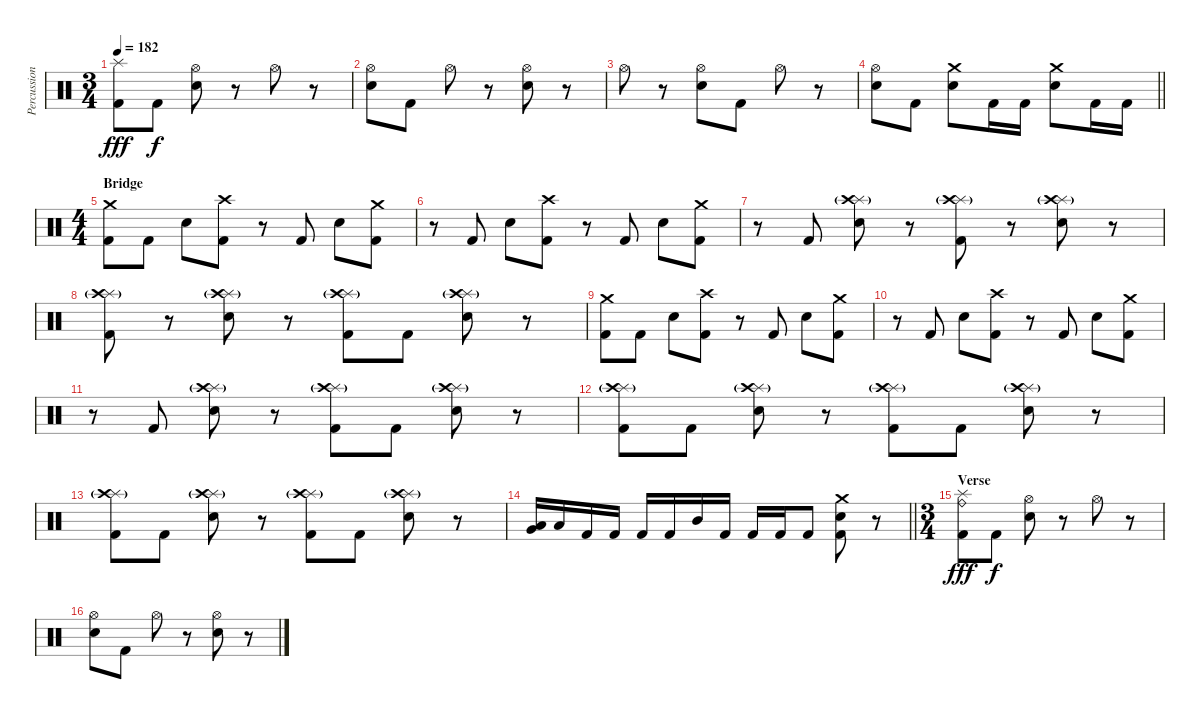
\track ("Percussion" "Percussion") {instrument percussion}
\staff {score}
\articulation defaults
\ts (3 4)
\tempo 182
\clef neutral
\ks c
("Splash (hit)" "Kick (hit) 2").8{dy fff} "Kick (hit) 2".8{dy f} ("Hi-Hat (open)" "Electric Snare (hit)").8 r.8 "Hi-Hat (open)".8 r.8 |
("Hi-Hat (open)" "Electric Snare (hit)").8 "Kick (hit) 2".8 "Hi-Hat (open)".8 r.8 ("Hi-Hat (open)" "Electric Snare (hit)").8 r.8 |
"Hi-Hat (open)".8 r.8 ("Hi-Hat (open)" "Electric Snare (hit)").8 "Kick (hit) 2".8 "Hi-Hat (open)".8 r.8 |
\barLineRight lightlight
("Hi-Hat (open)" "Electric Snare (hit)").8 "Kick (hit) 2".8 ("Crash medium (hit)" "Electric Snare (hit)").8 "Kick (hit) 2".16 "Kick (hit) 2".16 ("Crash medium (hit)" "Electric Snare (hit)").8 "Kick (hit) 2".16 "Kick (hit) 2".16 |
\ts (4 4)
\section ("" "Bridge")
("Crash medium (hit)" "Kick (hit) 2").8 "Kick (hit) 2".8 "Electric Snare (hit)".8 ("Crash high (hit)" "Kick (hit) 2").8 r.8 "Kick (hit) 2".8 "Electric Snare (hit)".8 ("Crash medium (hit)" "Kick (hit) 2").8 |
r.8 "Kick (hit) 2".8 "Electric Snare (hit)".8 ("Crash high (hit)" "Kick (hit) 2").8 r.8 "Kick (hit) 2".8 "Electric Snare (hit)".8 ("Crash medium (hit)" "Kick (hit) 2").8 |
r.8 "Kick (hit) 2".8 ("Splash (hit)"{g} "Crash high (hit)" "Electric Snare (hit)").8 r.8 ("Splash (hit)"{g} "Crash high (hit)" "Kick (hit) 2").8 r.8 ("Splash (hit)"{g} "Crash high (hit)" "Electric Snare (hit)").8 r.8 |
("Splash (hit)"{g} "Crash high (hit)" "Kick (hit) 2").8 r.8 ("Splash (hit)"{g} "Crash high (hit)" "Electric Snare (hit)").8 r.8 ("Splash (hit)"{g} "Crash high (hit)" "Kick (hit) 2").8 "Kick (hit) 2".8 ("Splash (hit)"{g} "Crash high (hit)" "Electric Snare (hit)").8 r.8 |
("Crash medium (hit)" "Kick (hit) 2").8 "Kick (hit) 2".8 "Electric Snare (hit)".8 ("Crash high (hit)" "Kick (hit) 2").8 r.8 "Kick (hit) 2".8 "Electric Snare (hit)".8 ("Crash medium (hit)" "Kick (hit) 2").8 |
r.8 "Kick (hit) 2".8 "Electric Snare (hit)".8 ("Crash high (hit)" "Kick (hit) 2").8 r.8 "Kick (hit) 2".8 "Electric Snare (hit)".8 ("Crash medium (hit)" "Kick (hit) 2").8 |
r.8 "Kick (hit) 2".8 ("Splash (hit)"{g} "Crash high (hit)" "Electric Snare (hit)").8 r.8 ("Splash (hit)"{g} "Crash high (hit)" "Kick (hit) 2").8 "Kick (hit) 2".8 ("Splash (hit)"{g} "Crash high (hit)" "Electric Snare (hit)").8 r.8 |
("Splash (hit)"{g} "Crash high (hit)" "Kick (hit) 2").8 "Kick (hit) 2".8 ("Splash (hit)"{g} "Crash high (hit)" "Electric Snare (hit)").8 r.8 ("Splash (hit)"{g} "Crash high (hit)" "Kick (hit) 2").8 "Kick (hit) 2".8 ("Splash (hit)"{g} "Crash high (hit)" "Electric Snare (hit)").8 r.8 |
("Splash (hit)"{g} "Crash high (hit)" "Kick (hit) 2").8 "Kick (hit) 2".8 ("Splash (hit)"{g} "Crash high (hit)" "Electric Snare (hit)").8 r.8 ("Splash (hit)"{g} "Crash high (hit)" "Kick (hit) 2").8 "Kick (hit) 2".8 ("Splash (hit)"{g} "Crash high (hit)" "Electric Snare (hit)").8 r.8 |
\barLineRight lightlight
("Low Tom (hit)" "Very Low Tom (hit)").16 "Low Tom (hit)".16 "Kick (hit) 2".16 "Kick (hit) 2".16 "Kick (hit) 2".16 "Kick (hit) 2".16 "Mid Tom (hit)".16 "Kick (hit) 2".16 "Kick (hit) 2".16 "Kick (hit) 2".16 "Kick (hit) 2".8 ("Crash medium (hit)" "Electric Snare (hit)" "Kick (hit) 2").8 r.8 |
\ts (3 4)
\section ("" "Verse")
("Splash (hit)" "Ride (bell)" "Kick (hit) 2").8{dy fff} "Kick (hit) 2".8{dy f} ("Hi-Hat (open)" "Electric Snare (hit)").8 r.8 "Hi-Hat (open)".8 r.8 |
("Hi-Hat (open)" "Electric Snare (hit)").8 "Kick (hit) 2".8 "Hi-Hat (open)".8 r.8 ("Hi-Hat (open)" "Electric Snare (hit)").8 r.8
